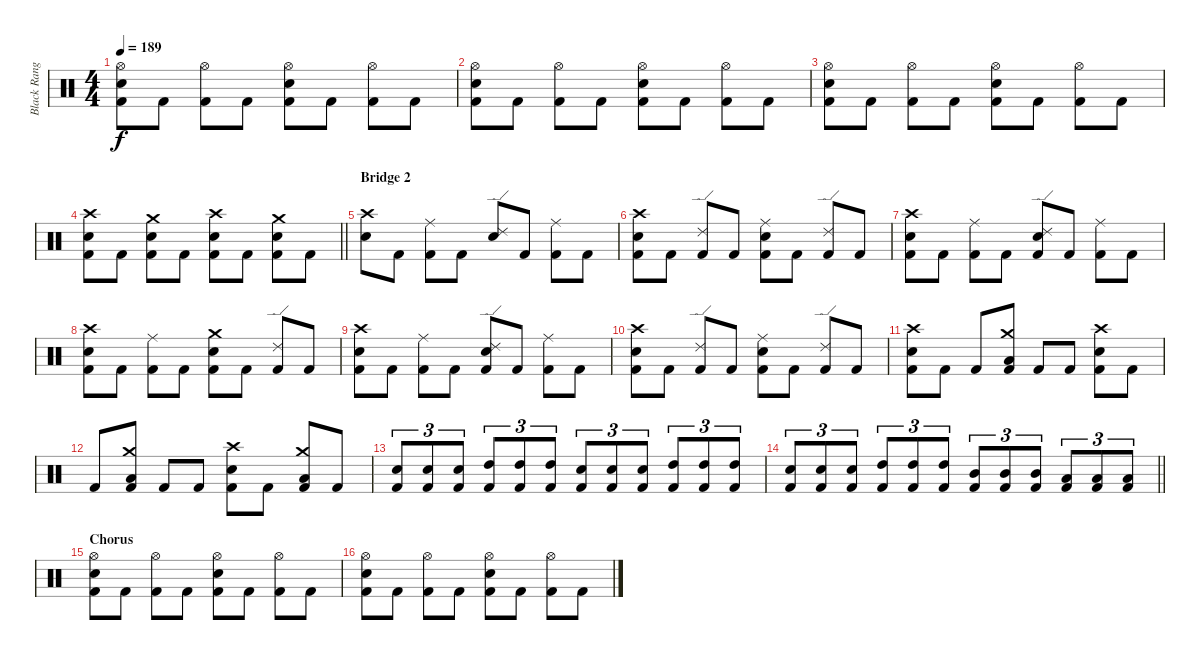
\track ("Black Ranger (Drums)" "Black Rang") {instrument percussion}
\staff {score}
\articulation defaults
\ts (4 4)
\tempo 189
\clef neutral
\ks c
("Kick (hit) 2" "Snare (hit) 2" "Hi-Hat (open)").8{dy f} "Kick (hit) 2".8 ("Kick (hit) 2" "Hi-Hat (open)").8 "Kick (hit) 2".8 ("Kick (hit) 2" "Snare (hit) 2" "Hi-Hat (open)").8 "Kick (hit) 2".8 ("Kick (hit) 2" "Hi-Hat (open)").8 "Kick (hit) 2".8 |
("Kick (hit) 2" "Snare (hit) 2" "Hi-Hat (open)").8 "Kick (hit) 2".8 ("Kick (hit) 2" "Hi-Hat (open)").8 "Kick (hit) 2".8 ("Kick (hit) 2" "Snare (hit) 2" "Hi-Hat (open)").8 "Kick (hit) 2".8 ("Kick (hit) 2" "Hi-Hat (open)").8 "Kick (hit) 2".8 |
("Kick (hit) 2" "Snare (hit) 2" "Hi-Hat (open)").8 "Kick (hit) 2".8 ("Kick (hit) 2" "Hi-Hat (open)").8 "Kick (hit) 2".8 ("Kick (hit) 2" "Snare (hit) 2" "Hi-Hat (open)").8 "Kick (hit) 2".8 ("Kick (hit) 2" "Hi-Hat (open)").8 "Kick (hit) 2".8 |
\barLineRight lightlight
("Kick (hit) 2" "Crash high (hit)" "Snare (hit) 2").8 "Kick (hit) 2".8 ("Kick (hit) 2" "Crash medium (hit)" "Snare (hit) 2").8 "Kick (hit) 2".8 ("Kick (hit) 2" "Crash high (hit)" "Snare (hit) 2").8 "Kick (hit) 2".8 ("Kick (hit) 2" "Crash medium (hit)" "Snare (hit) 2").8 "Kick (hit) 2".8 |
\section ("" "Bridge 2")
("Snare (hit) 2" "Crash high (hit)").8 "Kick (hit) 2".8 ("Kick (hit) 2" "Ride (middle)").8 "Kick (hit) 2".8 ("Snare (hit) 2" "Ride (edge) 2").8 "Kick (hit) 2".8 ("Kick (hit) 2" "Ride (middle)").8 "Kick (hit) 2".8 |
("Kick (hit) 2" "Snare (hit) 2" "Crash high (hit)").8 "Kick (hit) 2".8 ("Kick (hit) 2" "Ride (edge) 2").8 "Kick (hit) 2".8 ("Kick (hit) 2" "Snare (hit) 2" "Ride (middle)").8 "Kick (hit) 2".8 ("Kick (hit) 2" "Ride (edge) 2").8 "Kick (hit) 2".8 |
("Kick (hit) 2" "Snare (hit) 2" "Crash high (hit)").8 "Kick (hit) 2".8 ("Kick (hit) 2" "Ride (middle)").8 "Kick (hit) 2".8 ("Kick (hit) 2" "Snare (hit) 2" "Ride (edge) 2").8 "Kick (hit) 2".8 ("Kick (hit) 2" "Ride (middle)").8 "Kick (hit) 2".8 |
("Kick (hit) 2" "Snare (hit) 2" "Crash high (hit)").8 "Kick (hit) 2".8 ("Kick (hit) 2" "Ride (middle)").8 "Kick (hit) 2".8 ("Kick (hit) 2" "Snare (hit) 2" "Crash medium (hit)").8 "Kick (hit) 2".8 ("Kick (hit) 2" "Ride (edge) 2").8 "Kick (hit) 2".8 |
("Kick (hit) 2" "Snare (hit) 2" "Crash high (hit)").8 "Kick (hit) 2".8 ("Kick (hit) 2" "Ride (middle)").8 "Kick (hit) 2".8 ("Kick (hit) 2" "Snare (hit) 2" "Ride (edge) 2").8 "Kick (hit) 2".8 ("Kick (hit) 2" "Ride (middle)").8 "Kick (hit) 2".8 |
("Kick (hit) 2" "Snare (hit) 2" "Crash high (hit)").8 "Kick (hit) 2".8 ("Kick (hit) 2" "Ride (edge) 2").8 "Kick (hit) 2".8 ("Kick (hit) 2" "Snare (hit) 2" "Ride (middle)").8 "Kick (hit) 2".8 ("Kick (hit) 2" "Ride (edge) 2").8 "Kick (hit) 2".8 |
("Kick (hit) 2" "Crash high (hit)" "Snare (hit) 2").8 "Kick (hit) 2".8 "Kick (hit) 2".8 ("Kick (hit) 2" "Crash medium (hit)" "Low Tom (hit)").8 "Kick (hit) 2".8 "Kick (hit) 2".8 ("Kick (hit) 2" "Crash high (hit)" "Snare (hit) 2").8 "Kick (hit) 2".8 |
"Kick (hit) 2".8 ("Kick (hit) 2" "Crash medium (hit)" "Low Tom (hit)").8 "Kick (hit) 2".8 "Kick (hit) 2".8 ("Kick (hit) 2" "Crash high (hit)" "Snare (hit) 2").8 "Kick (hit) 2".8 ("Kick (hit) 2" "Crash medium (hit)" "Low Tom (hit)").8 "Kick (hit) 2".8 |
("Kick (hit) 2" "Snare (hit) 2").8{tu (3 2)} ("Kick (hit) 2" "Snare (hit) 2").8{tu (3 2)} ("Kick (hit) 2" "Snare (hit) 2").8{tu (3 2)} ("Kick (hit) 2" "High Tom (hit)").8{tu (3 2)} ("Kick (hit) 2" "High Tom (hit)").8{tu (3 2)} ("Kick (hit) 2" "High Tom (hit)").8{tu (3 2)} ("Kick (hit) 2" "Snare (hit) 2").8{tu (3 2)} ("Kick (hit) 2" "Snare (hit) 2").8{tu (3 2)} ("Kick (hit) 2" "Snare (hit) 2").8{tu (3 2)} ("Kick (hit) 2" "High Tom (hit)").8{tu (3 2)} ("Kick (hit) 2" "High Tom (hit)").8{tu (3 2)} ("Kick (hit) 2" "High Tom (hit)").8{tu (3 2)} |
\barLineRight lightlight
("Kick (hit) 2" "Snare (hit) 2").8{tu (3 2)} ("Kick (hit) 2" "Snare (hit) 2").8{tu (3 2)} ("Kick (hit) 2" "Snare (hit) 2").8{tu (3 2)} ("Kick (hit) 2" "High Tom (hit)").8{tu (3 2)} ("Kick (hit) 2" "High Tom (hit)").8{tu (3 2)} ("Kick (hit) 2" "High Tom (hit)").8{tu (3 2)} ("Kick (hit) 2" "Mid Tom (hit)").8{tu (3 2)} ("Kick (hit) 2" "Mid Tom (hit)").8{tu (3 2)} ("Kick (hit) 2" "Mid Tom (hit)").8{tu (3 2)} ("Kick (hit) 2" "Low Tom (hit)").8{tu (3 2)} ("Kick (hit) 2" "Low Tom (hit)").8{tu (3 2)} ("Kick (hit) 2" "Low Tom (hit)").8{tu (3 2)} |
\section ("" "Chorus")
("Kick (hit) 2" "Snare (hit) 2" "Hi-Hat (open)").8 "Kick (hit) 2".8 ("Kick (hit) 2" "Hi-Hat (open)").8 "Kick (hit) 2".8 ("Kick (hit) 2" "Snare (hit) 2" "Hi-Hat (open)").8 "Kick (hit) 2".8 ("Kick (hit) 2" "Hi-Hat (open)").8 "Kick (hit) 2".8 |
("Kick (hit) 2" "Snare (hit) 2" "Hi-Hat (open)").8 "Kick (hit) 2".8 ("Kick (hit) 2" "Hi-Hat (open)").8 "Kick (hit) 2".8 ("Kick (hit) 2" "Snare (hit) 2" "Hi-Hat (open)").8 "Kick (hit) 2".8 ("Kick (hit) 2" "Hi-Hat (open)").8 "Kick (hit) 2".8
